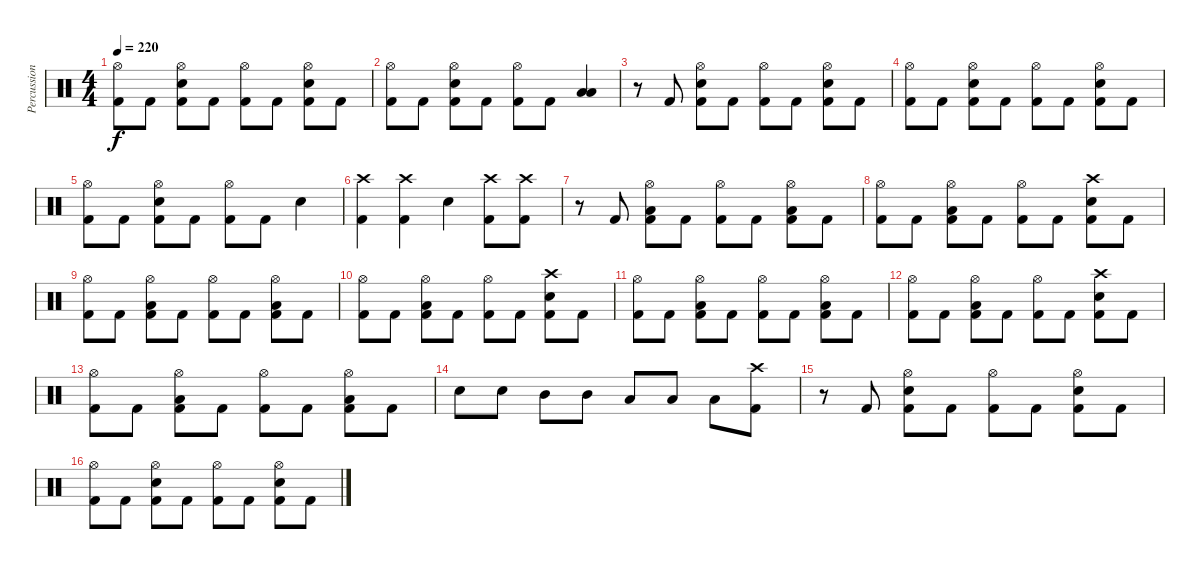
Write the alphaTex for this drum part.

\track ("Percussions" "Percussion") {instrument percussion}
\staff {score}
\articulation defaults
\ts (4 4)
\tempo 220
\clef neutral
\ks c
("Hi-Hat (open)" "Kick (hit) 2").8{dy f} "Kick (hit) 2".8 ("Hi-Hat (open)" "Electric Snare (hit)" "Kick (hit) 2").8 "Kick (hit) 2".8 ("Hi-Hat (open)" "Kick (hit) 2").8 "Kick (hit) 2".8 ("Hi-Hat (open)" "Electric Snare (hit)" "Kick (hit) 2").8 "Kick (hit) 2".8 |
("Hi-Hat (open)" "Kick (hit) 2").8 "Kick (hit) 2".8 ("Hi-Hat (open)" "Electric Snare (hit)" "Kick (hit) 2").8 "Kick (hit) 2".8 ("Hi-Hat (open)" "Kick (hit) 2").8 "Kick (hit) 2".8 ("Low Tom (hit)" "Low Floor Tom (hit)").4 |
r.8 "Kick (hit) 2".8 ("Hi-Hat (open)" "Electric Snare (hit)" "Kick (hit) 2").8 "Kick (hit) 2".8 ("Hi-Hat (open)" "Kick (hit) 2").8 "Kick (hit) 2".8 ("Hi-Hat (open)" "Electric Snare (hit)" "Kick (hit) 2").8 "Kick (hit) 2".8 |
("Hi-Hat (open)" "Kick (hit) 2").8 "Kick (hit) 2".8 ("Hi-Hat (open)" "Electric Snare (hit)" "Kick (hit) 2").8 "Kick (hit) 2".8 ("Hi-Hat (open)" "Kick (hit) 2").8 "Kick (hit) 2".8 ("Hi-Hat (open)" "Electric Snare (hit)" "Kick (hit) 2").8 "Kick (hit) 2".8 |
("Hi-Hat (open)" "Kick (hit) 2").8 "Kick (hit) 2".8 ("Hi-Hat (open)" "Electric Snare (hit)" "Kick (hit) 2").8 "Kick (hit) 2".8 ("Hi-Hat (open)" "Kick (hit) 2").8 "Kick (hit) 2".8 "Electric Snare (hit)".4 |
("Crash high (hit)" "Kick (hit) 2").4 ("Crash high (hit)" "Kick (hit) 2").4 "Electric Snare (hit)".4 ("Crash high (hit)" "Kick (hit) 2").8 ("Crash high (hit)" "Kick (hit) 2").8 |
r.8 "Kick (hit) 2".8 ("Hi-Hat (open)" "Low Tom (hit)" "Kick (hit) 2").8 "Kick (hit) 2".8 ("Hi-Hat (open)" "Kick (hit) 2").8 "Kick (hit) 2".8 ("Hi-Hat (open)" "Low Tom (hit)" "Kick (hit) 2").8 "Kick (hit) 2".8 |
("Hi-Hat (open)" "Kick (hit) 2").8 "Kick (hit) 2".8 ("Hi-Hat (open)" "Low Tom (hit)" "Kick (hit) 2").8 "Kick (hit) 2".8 ("Hi-Hat (open)" "Kick (hit) 2").8 "Kick (hit) 2".8 ("Crash high (hit)" "Electric Snare (hit)" "Kick (hit) 2").8 "Kick (hit) 2".8 |
("Hi-Hat (open)" "Kick (hit) 2").8 "Kick (hit) 2".8 ("Hi-Hat (open)" "Low Tom (hit)" "Kick (hit) 2").8 "Kick (hit) 2".8 ("Hi-Hat (open)" "Kick (hit) 2").8 "Kick (hit) 2".8 ("Hi-Hat (open)" "Low Tom (hit)" "Kick (hit) 2").8 "Kick (hit) 2".8 |
("Hi-Hat (open)" "Kick (hit) 2").8 "Kick (hit) 2".8 ("Hi-Hat (open)" "Low Tom (hit)" "Kick (hit) 2").8 "Kick (hit) 2".8 ("Hi-Hat (open)" "Kick (hit) 2").8 "Kick (hit) 2".8 ("Crash high (hit)" "Electric Snare (hit)" "Kick (hit) 2").8 "Kick (hit) 2".8 |
("Hi-Hat (open)" "Kick (hit) 2").8 "Kick (hit) 2".8 ("Hi-Hat (open)" "Low Tom (hit)" "Kick (hit) 2").8 "Kick (hit) 2".8 ("Hi-Hat (open)" "Kick (hit) 2").8 "Kick (hit) 2".8 ("Hi-Hat (open)" "Low Tom (hit)" "Kick (hit) 2").8 "Kick (hit) 2".8 |
("Hi-Hat (open)" "Kick (hit) 2").8 "Kick (hit) 2".8 ("Hi-Hat (open)" "Low Tom (hit)" "Kick (hit) 2").8 "Kick (hit) 2".8 ("Hi-Hat (open)" "Kick (hit) 2").8 "Kick (hit) 2".8 ("Crash high (hit)" "Electric Snare (hit)" "Kick (hit) 2").8 "Kick (hit) 2".8 |
("Hi-Hat (open)" "Kick (hit) 2").8 "Kick (hit) 2".8 ("Hi-Hat (open)" "Low Tom (hit)" "Kick (hit) 2").8 "Kick (hit) 2".8 ("Hi-Hat (open)" "Kick (hit) 2").8 "Kick (hit) 2".8 ("Hi-Hat (open)" "Low Tom (hit)" "Kick (hit) 2").8 "Kick (hit) 2".8 |
"Electric Snare (hit)".8 "Electric Snare (hit)".8 "Mid Tom (hit)".8 "Mid Tom (hit)".8 "Low Tom (hit)".8 "Low Tom (hit)".8 "Low Floor Tom (hit)".8 ("Crash high (hit)" "Kick (hit) 2").8 |
r.8 "Kick (hit) 2".8 ("Hi-Hat (open)" "Electric Snare (hit)" "Kick (hit) 2").8 "Kick (hit) 2".8 ("Hi-Hat (open)" "Kick (hit) 2").8 "Kick (hit) 2".8 ("Hi-Hat (open)" "Electric Snare (hit)" "Kick (hit) 2").8 "Kick (hit) 2".8 |
("Hi-Hat (open)" "Kick (hit) 2").8 "Kick (hit) 2".8 ("Hi-Hat (open)" "Electric Snare (hit)" "Kick (hit) 2").8 "Kick (hit) 2".8 ("Hi-Hat (open)" "Kick (hit) 2").8 "Kick (hit) 2".8 ("Hi-Hat (open)" "Electric Snare (hit)" "Kick (hit) 2").8 "Kick (hit) 2".8
